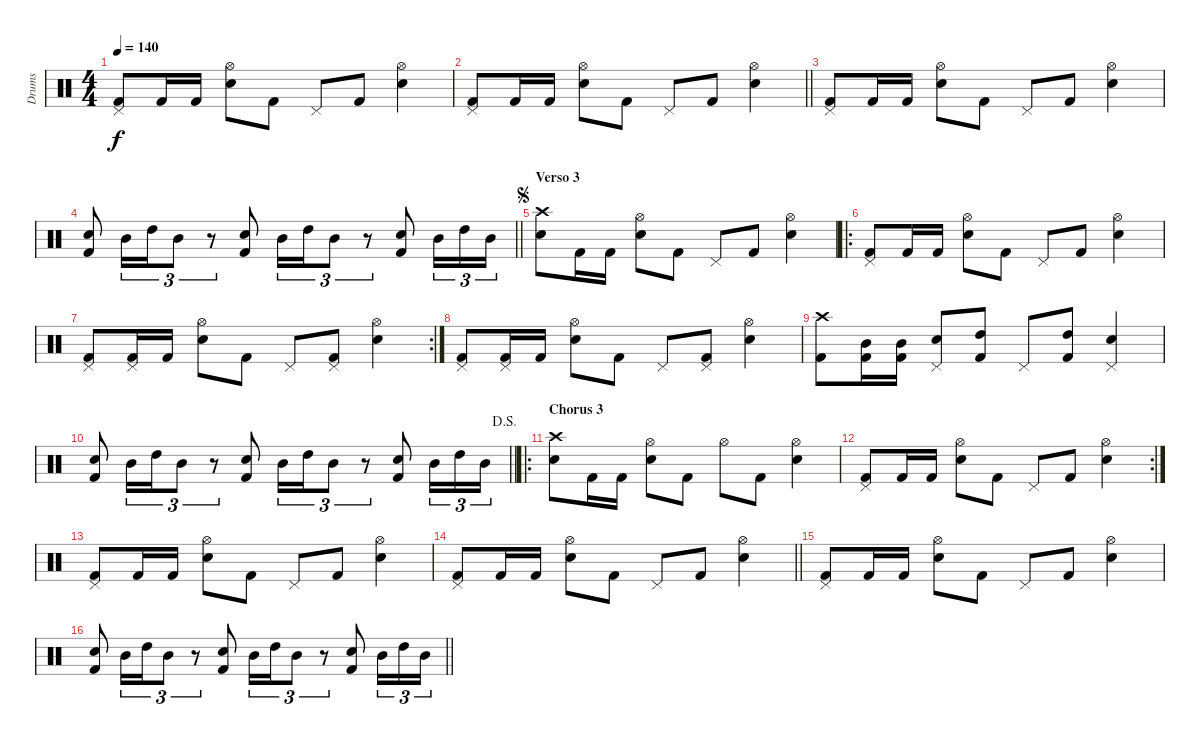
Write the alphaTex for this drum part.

\track ("Drums" "Drums") {instrument percussion}
\staff {score}
\articulation defaults
\ts (4 4)
\tempo 140
\clef neutral
\ks c
("Pedal Hi-Hat (hit)" "Kick (hit) 2").8{dy f} "Kick (hit) 2".16 "Kick (hit) 2".16 ("Hi-Hat (open)" "Electric Snare (hit)").8 "Kick (hit) 2".8 "Pedal Hi-Hat (hit)".8 "Kick (hit) 2".8 ("Hi-Hat (open)" "Electric Snare (hit)").4 |
\barLineRight lightlight
("Pedal Hi-Hat (hit)" "Kick (hit) 2").8 "Kick (hit) 2".16 "Kick (hit) 2".16 ("Hi-Hat (open)" "Electric Snare (hit)").8 "Kick (hit) 2".8 "Pedal Hi-Hat (hit)".8 "Kick (hit) 2".8 ("Hi-Hat (open)" "Electric Snare (hit)").4 |
("Pedal Hi-Hat (hit)" "Kick (hit) 2").8 "Kick (hit) 2".16 "Kick (hit) 2".16 ("Hi-Hat (open)" "Electric Snare (hit)").8 "Kick (hit) 2".8 "Pedal Hi-Hat (hit)".8 "Kick (hit) 2".8 ("Hi-Hat (open)" "Electric Snare (hit)").4 |
\barLineRight lightlight
("Electric Snare (hit)" "Kick (hit) 2").8 "Mid Tom (hit)".16{tu (3 2)} "High Tom (hit)".16{tu (3 2)} "Mid Tom (hit)".8{tu (3 2)} r.8{tu (3 2)} ("Electric Snare (hit)" "Kick (hit) 2").8 "Mid Tom (hit)".16{tu (3 2)} "High Tom (hit)".16{tu (3 2)} "Mid Tom (hit)".8{tu (3 2)} r.8{tu (3 2)} ("Electric Snare (hit)" "Kick (hit) 2").8 "Mid Tom (hit)".16{tu (3 2)} "High Tom (hit)".16{tu (3 2)} "Mid Tom (hit)".16{tu (3 2)} |
\section ("" "Verso 3")
\jump segno
("Crash high (hit)" "Electric Snare (hit)").8 "Kick (hit) 2".16 "Kick (hit) 2".16 ("Hi-Hat (open)" "Electric Snare (hit)").8 "Kick (hit) 2".8 "Pedal Hi-Hat (hit)".8 "Kick (hit) 2".8 ("Hi-Hat (open)" "Electric Snare (hit)").4 |
\ro
("Pedal Hi-Hat (hit)" "Kick (hit) 2").8 "Kick (hit) 2".16 "Kick (hit) 2".16 ("Hi-Hat (open)" "Electric Snare (hit)").8 "Kick (hit) 2".8 "Pedal Hi-Hat (hit)".8 "Kick (hit) 2".8 ("Hi-Hat (open)" "Electric Snare (hit)").4 |
\rc 2
("Pedal Hi-Hat (hit)" "Kick (hit) 2").8 ("Pedal Hi-Hat (hit)" "Kick (hit) 2").16 "Kick (hit) 2".16 ("Hi-Hat (open)" "Electric Snare (hit)").8 "Kick (hit) 2".8 "Pedal Hi-Hat (hit)".8 ("Pedal Hi-Hat (hit)" "Kick (hit) 2").8 ("Hi-Hat (open)" "Electric Snare (hit)").4 |
("Pedal Hi-Hat (hit)" "Kick (hit) 2").8 ("Pedal Hi-Hat (hit)" "Kick (hit) 2").16 "Kick (hit) 2".16 ("Hi-Hat (open)" "Electric Snare (hit)").8 "Kick (hit) 2".8 "Pedal Hi-Hat (hit)".8 ("Pedal Hi-Hat (hit)" "Kick (hit) 2").8 ("Hi-Hat (open)" "Electric Snare (hit)").4 |
("Crash high (hit)" "Kick (hit) 2").8 ("Mid Tom (hit)" "Kick (hit) 2").16 ("Mid Tom (hit)" "Kick (hit) 2").16 ("Pedal Hi-Hat (hit)" "Electric Snare (hit)").8 ("High Tom (hit)" "Kick (hit) 2").8 "Pedal Hi-Hat (hit)".8 ("High Tom (hit)" "Kick (hit) 2").8 ("Pedal Hi-Hat (hit)" "Electric Snare (hit)").4 |
\jump dalsegno
\barLineRight lightlight
("Electric Snare (hit)" "Kick (hit) 2").8 "Mid Tom (hit)".16{tu (3 2)} "High Tom (hit)".16{tu (3 2)} "Mid Tom (hit)".8{tu (3 2)} r.8{tu (3 2)} ("Electric Snare (hit)" "Kick (hit) 2").8 "Mid Tom (hit)".16{tu (3 2)} "High Tom (hit)".16{tu (3 2)} "Mid Tom (hit)".8{tu (3 2)} r.8{tu (3 2)} ("Electric Snare (hit)" "Kick (hit) 2").8 "Mid Tom (hit)".16{tu (3 2)} "High Tom (hit)".16{tu (3 2)} "Mid Tom (hit)".16{tu (3 2)} |
\ro
\section ("" "Chorus 3")
("Crash high (hit)" "Electric Snare (hit)").8 "Kick (hit) 2".16 "Kick (hit) 2".16 ("Hi-Hat (open)" "Electric Snare (hit)").8 "Kick (hit) 2".8 "Hi-Hat (open)".8 "Kick (hit) 2".8 ("Hi-Hat (open)" "Electric Snare (hit)").4 |
\rc 2
("Pedal Hi-Hat (hit)" "Kick (hit) 2").8 "Kick (hit) 2".16 "Kick (hit) 2".16 ("Hi-Hat (open)" "Electric Snare (hit)").8 "Kick (hit) 2".8 "Pedal Hi-Hat (hit)".8 "Kick (hit) 2".8 ("Hi-Hat (open)" "Electric Snare (hit)").4 |
("Pedal Hi-Hat (hit)" "Kick (hit) 2").8 "Kick (hit) 2".16 "Kick (hit) 2".16 ("Hi-Hat (open)" "Electric Snare (hit)").8 "Kick (hit) 2".8 "Pedal Hi-Hat (hit)".8 "Kick (hit) 2".8 ("Hi-Hat (open)" "Electric Snare (hit)").4 |
\barLineRight lightlight
("Pedal Hi-Hat (hit)" "Kick (hit) 2").8 "Kick (hit) 2".16 "Kick (hit) 2".16 ("Hi-Hat (open)" "Electric Snare (hit)").8 "Kick (hit) 2".8 "Pedal Hi-Hat (hit)".8 "Kick (hit) 2".8 ("Hi-Hat (open)" "Electric Snare (hit)").4 |
("Pedal Hi-Hat (hit)" "Kick (hit) 2").8 "Kick (hit) 2".16 "Kick (hit) 2".16 ("Hi-Hat (open)" "Electric Snare (hit)").8 "Kick (hit) 2".8 "Pedal Hi-Hat (hit)".8 "Kick (hit) 2".8 ("Hi-Hat (open)" "Electric Snare (hit)").4 |
\barLineRight lightlight
("Electric Snare (hit)" "Kick (hit) 2").8 "Mid Tom (hit)".16{tu (3 2)} "High Tom (hit)".16{tu (3 2)} "Mid Tom (hit)".8{tu (3 2)} r.8{tu (3 2)} ("Electric Snare (hit)" "Kick (hit) 2").8 "Mid Tom (hit)".16{tu (3 2)} "High Tom (hit)".16{tu (3 2)} "Mid Tom (hit)".8{tu (3 2)} r.8{tu (3 2)} ("Electric Snare (hit)" "Kick (hit) 2").8 "Mid Tom (hit)".16{tu (3 2)} "High Tom (hit)".16{tu (3 2)} "Mid Tom (hit)".16{tu (3 2)}
